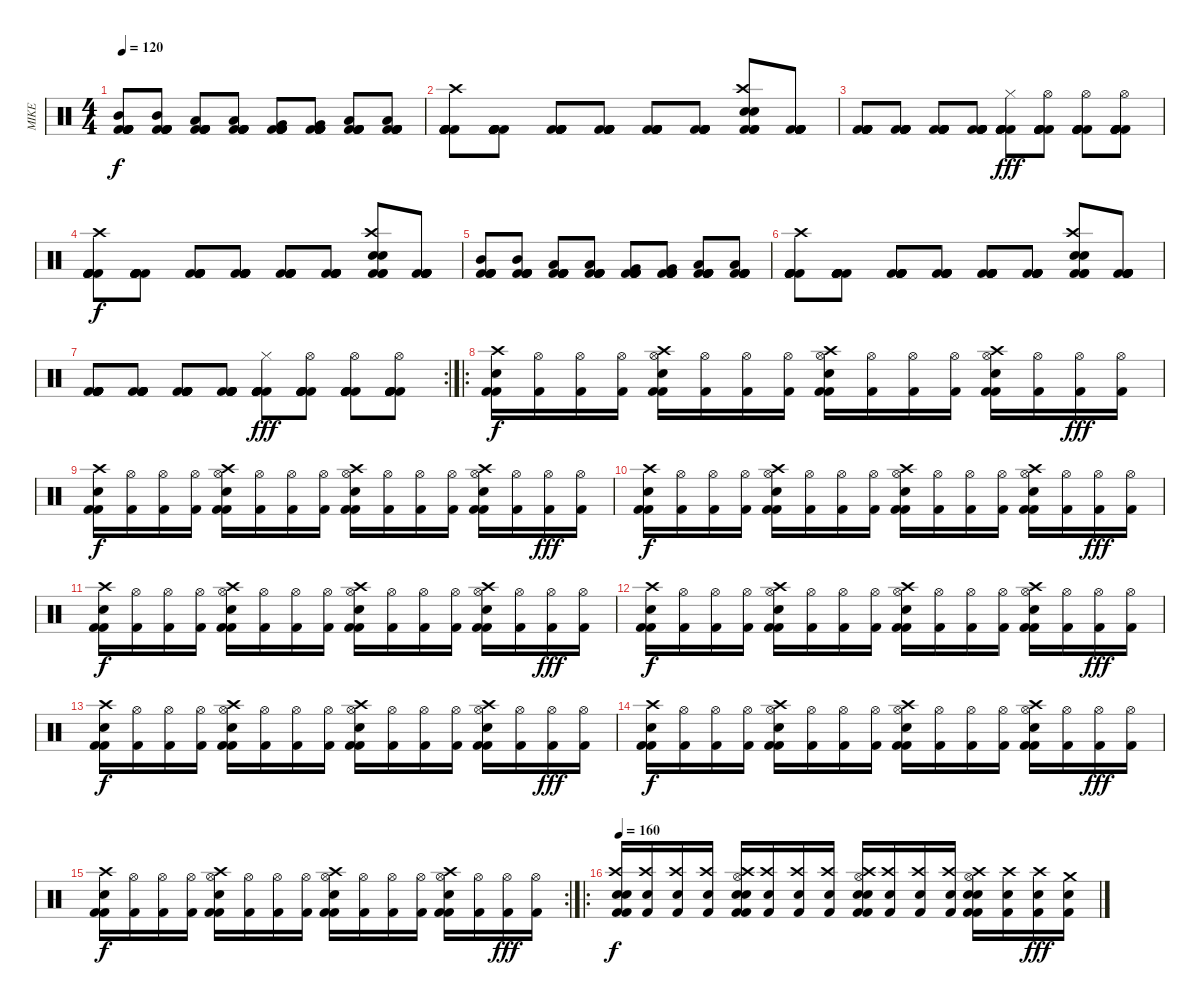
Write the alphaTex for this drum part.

\track ("MIKE" "MIKE") {instrument percussion}
\staff {score}
\articulation defaults
\ts (4 4)
\tempo 120
\clef neutral
\ks c
("Kick (hit) 2" "Mid Tom (hit)" "Kick (hit) 2" "Kick (hit) 2" "Kick (hit) 2" "Kick (hit) 2").8{dy f} ("Kick (hit) 2" "Mid Tom (hit)" "Kick (hit) 2" "Kick (hit) 2" "Kick (hit) 2" "Kick (hit) 2").8 ("Kick (hit) 2" "Kick (hit) 2" "Low Tom (hit)" "Kick (hit) 2" "Kick (hit) 2" "Kick (hit) 2").8 ("Kick (hit) 2" "Kick (hit) 2" "Low Tom (hit)" "Kick (hit) 2" "Kick (hit) 2" "Kick (hit) 2").8 ("Kick (hit) 2" "Kick (hit) 2" "Kick (hit) 2" "Very Low Tom (hit)" "Kick (hit) 2" "Kick (hit) 2").8 ("Kick (hit) 2" "Kick (hit) 2" "Kick (hit) 2" "Very Low Tom (hit)" "Kick (hit) 2" "Kick (hit) 2").8 ("Kick (hit) 2" "Kick (hit) 2" "Kick (hit) 2" "Kick (hit) 2" "Low Floor Tom (hit)" "Kick (hit) 2").8 ("Kick (hit) 2" "Kick (hit) 2" "Kick (hit) 2" "Kick (hit) 2" "Low Floor Tom (hit)" "Kick (hit) 2").8 |
("Crash high (hit)" "Kick (hit) 2" "Kick (hit) 2" "Kick (hit) 2" "Kick (hit) 2" "Kick (hit) 2").8 ("Kick (hit) 2" "Kick (hit) 2" "Kick (hit) 2" "Kick (hit) 2" "Kick (hit) 2" "Kick (hit) 2").8 ("Kick (hit) 2" "Kick (hit) 2" "Kick (hit) 2" "Kick (hit) 2" "Kick (hit) 2" "Kick (hit) 2").8 ("Kick (hit) 2" "Kick (hit) 2" "Kick (hit) 2" "Kick (hit) 2" "Kick (hit) 2" "Kick (hit) 2").8 ("Kick (hit) 2" "Kick (hit) 2" "Kick (hit) 2" "Kick (hit) 2" "Kick (hit) 2" "Kick (hit) 2").8 ("Kick (hit) 2" "Kick (hit) 2" "Kick (hit) 2" "Kick (hit) 2" "Kick (hit) 2" "Kick (hit) 2").8 ("Crash high (hit)" "Kick (hit) 2" "Electric Snare (hit)" "Kick (hit) 2" "Electric Snare (hit)" "Kick (hit) 2").8 ("Kick (hit) 2" "Kick (hit) 2" "Kick (hit) 2" "Kick (hit) 2" "Kick (hit) 2" "Kick (hit) 2").8 |
("Kick (hit) 2" "Kick (hit) 2" "Kick (hit) 2" "Kick (hit) 2" "Kick (hit) 2" "Kick (hit) 2").8 ("Kick (hit) 2" "Kick (hit) 2" "Kick (hit) 2" "Kick (hit) 2" "Kick (hit) 2" "Kick (hit) 2").8 ("Kick (hit) 2" "Kick (hit) 2" "Kick (hit) 2" "Kick (hit) 2" "Kick (hit) 2" "Kick (hit) 2").8 ("Kick (hit) 2" "Kick (hit) 2" "Kick (hit) 2" "Kick (hit) 2" "Kick (hit) 2" "Kick (hit) 2").8 ("Hi-Hat (closed)" "Kick (hit) 2" "Kick (hit) 2" "Kick (hit) 2" "Kick (hit) 2" "Kick (hit) 2").8{dy fff} ("Hi-Hat (open)" "Kick (hit) 2" "Kick (hit) 2" "Kick (hit) 2" "Kick (hit) 2" "Kick (hit) 2").8 ("Hi-Hat (open)" "Kick (hit) 2" "Kick (hit) 2" "Kick (hit) 2" "Kick (hit) 2" "Kick (hit) 2").8 ("Hi-Hat (open)" "Kick (hit) 2" "Kick (hit) 2" "Kick (hit) 2" "Kick (hit) 2" "Kick (hit) 2").8 |
("Crash high (hit)" "Kick (hit) 2" "Kick (hit) 2" "Kick (hit) 2" "Kick (hit) 2" "Kick (hit) 2").8{dy f} ("Kick (hit) 2" "Kick (hit) 2" "Kick (hit) 2" "Kick (hit) 2" "Kick (hit) 2" "Kick (hit) 2").8 ("Kick (hit) 2" "Kick (hit) 2" "Kick (hit) 2" "Kick (hit) 2" "Kick (hit) 2" "Kick (hit) 2").8 ("Kick (hit) 2" "Kick (hit) 2" "Kick (hit) 2" "Kick (hit) 2" "Kick (hit) 2" "Kick (hit) 2").8 ("Kick (hit) 2" "Kick (hit) 2" "Kick (hit) 2" "Kick (hit) 2" "Kick (hit) 2" "Kick (hit) 2").8 ("Kick (hit) 2" "Kick (hit) 2" "Kick (hit) 2" "Kick (hit) 2" "Kick (hit) 2" "Kick (hit) 2").8 ("Crash high (hit)" "Kick (hit) 2" "Electric Snare (hit)" "Kick (hit) 2" "Electric Snare (hit)" "Kick (hit) 2").8 ("Kick (hit) 2" "Kick (hit) 2" "Kick (hit) 2" "Kick (hit) 2" "Kick (hit) 2" "Kick (hit) 2").8 |
("Kick (hit) 2" "Mid Tom (hit)" "Kick (hit) 2" "Kick (hit) 2" "Kick (hit) 2" "Kick (hit) 2").8 ("Kick (hit) 2" "Mid Tom (hit)" "Kick (hit) 2" "Kick (hit) 2" "Kick (hit) 2" "Kick (hit) 2").8 ("Kick (hit) 2" "Kick (hit) 2" "Low Tom (hit)" "Kick (hit) 2" "Kick (hit) 2" "Kick (hit) 2").8 ("Kick (hit) 2" "Kick (hit) 2" "Low Tom (hit)" "Kick (hit) 2" "Kick (hit) 2" "Kick (hit) 2").8 ("Kick (hit) 2" "Kick (hit) 2" "Kick (hit) 2" "Very Low Tom (hit)" "Kick (hit) 2" "Kick (hit) 2").8 ("Kick (hit) 2" "Kick (hit) 2" "Kick (hit) 2" "Very Low Tom (hit)" "Kick (hit) 2" "Kick (hit) 2").8 ("Kick (hit) 2" "Kick (hit) 2" "Kick (hit) 2" "Kick (hit) 2" "Low Floor Tom (hit)" "Kick (hit) 2").8 ("Kick (hit) 2" "Kick (hit) 2" "Kick (hit) 2" "Kick (hit) 2" "Low Floor Tom (hit)" "Kick (hit) 2").8 |
("Crash high (hit)" "Kick (hit) 2" "Kick (hit) 2" "Kick (hit) 2" "Kick (hit) 2" "Kick (hit) 2").8 ("Kick (hit) 2" "Kick (hit) 2" "Kick (hit) 2" "Kick (hit) 2" "Kick (hit) 2" "Kick (hit) 2").8 ("Kick (hit) 2" "Kick (hit) 2" "Kick (hit) 2" "Kick (hit) 2" "Kick (hit) 2" "Kick (hit) 2").8 ("Kick (hit) 2" "Kick (hit) 2" "Kick (hit) 2" "Kick (hit) 2" "Kick (hit) 2" "Kick (hit) 2").8 ("Kick (hit) 2" "Kick (hit) 2" "Kick (hit) 2" "Kick (hit) 2" "Kick (hit) 2" "Kick (hit) 2").8 ("Kick (hit) 2" "Kick (hit) 2" "Kick (hit) 2" "Kick (hit) 2" "Kick (hit) 2" "Kick (hit) 2").8 ("Crash high (hit)" "Kick (hit) 2" "Electric Snare (hit)" "Kick (hit) 2" "Electric Snare (hit)" "Kick (hit) 2").8 ("Kick (hit) 2" "Kick (hit) 2" "Kick (hit) 2" "Kick (hit) 2" "Kick (hit) 2" "Kick (hit) 2").8 |
\rc 2
("Kick (hit) 2" "Kick (hit) 2" "Kick (hit) 2" "Kick (hit) 2" "Kick (hit) 2" "Kick (hit) 2").8 ("Kick (hit) 2" "Kick (hit) 2" "Kick (hit) 2" "Kick (hit) 2" "Kick (hit) 2" "Kick (hit) 2").8 ("Kick (hit) 2" "Kick (hit) 2" "Kick (hit) 2" "Kick (hit) 2" "Kick (hit) 2" "Kick (hit) 2").8 ("Kick (hit) 2" "Kick (hit) 2" "Kick (hit) 2" "Kick (hit) 2" "Kick (hit) 2" "Kick (hit) 2").8 ("Hi-Hat (closed)" "Kick (hit) 2" "Kick (hit) 2" "Kick (hit) 2" "Kick (hit) 2" "Kick (hit) 2").8{dy fff} ("Hi-Hat (open)" "Kick (hit) 2" "Kick (hit) 2" "Kick (hit) 2" "Kick (hit) 2" "Kick (hit) 2").8 ("Hi-Hat (open)" "Kick (hit) 2" "Kick (hit) 2" "Kick (hit) 2" "Kick (hit) 2" "Kick (hit) 2").8 ("Hi-Hat (open)" "Kick (hit) 2" "Kick (hit) 2" "Kick (hit) 2" "Kick (hit) 2" "Kick (hit) 2").8 |
\ro
("Crash high (hit)" "Kick (hit) 2" "Electric Snare (hit)" "Kick (hit) 2").16{dy f} ("Hi-Hat (open)" "Kick (hit) 2").16 ("Hi-Hat (open)" "Kick (hit) 2").16 ("Hi-Hat (open)" "Kick (hit) 2").16 ("Hi-Hat (open)" "Crash high (hit)" "Kick (hit) 2" "Electric Snare (hit)" "Kick (hit) 2").16 ("Hi-Hat (open)" "Kick (hit) 2").16 ("Hi-Hat (open)" "Kick (hit) 2").16 ("Hi-Hat (open)" "Kick (hit) 2").16 ("Hi-Hat (open)" "Crash high (hit)" "Kick (hit) 2" "Electric Snare (hit)" "Kick (hit) 2").16 ("Hi-Hat (open)" "Kick (hit) 2").16 ("Hi-Hat (open)" "Kick (hit) 2").16 ("Hi-Hat (open)" "Kick (hit) 2").16 ("Hi-Hat (open)" "Crash high (hit)" "Kick (hit) 2" "Electric Snare (hit)" "Kick (hit) 2").16 ("Hi-Hat (open)" "Kick (hit) 2").16 ("Hi-Hat (open)" "Kick (hit) 2").16{dy fff} ("Hi-Hat (open)" "Kick (hit) 2").16 |
("Crash high (hit)" "Kick (hit) 2" "Electric Snare (hit)" "Kick (hit) 2").16{dy f} ("Hi-Hat (open)" "Kick (hit) 2").16 ("Hi-Hat (open)" "Kick (hit) 2").16 ("Hi-Hat (open)" "Kick (hit) 2").16 ("Hi-Hat (open)" "Crash high (hit)" "Kick (hit) 2" "Electric Snare (hit)" "Kick (hit) 2").16 ("Hi-Hat (open)" "Kick (hit) 2").16 ("Hi-Hat (open)" "Kick (hit) 2").16 ("Hi-Hat (open)" "Kick (hit) 2").16 ("Hi-Hat (open)" "Crash high (hit)" "Kick (hit) 2" "Electric Snare (hit)" "Kick (hit) 2").16 ("Hi-Hat (open)" "Kick (hit) 2").16 ("Hi-Hat (open)" "Kick (hit) 2").16 ("Hi-Hat (open)" "Kick (hit) 2").16 ("Hi-Hat (open)" "Crash high (hit)" "Kick (hit) 2" "Electric Snare (hit)" "Kick (hit) 2").16 ("Hi-Hat (open)" "Kick (hit) 2").16 ("Hi-Hat (open)" "Kick (hit) 2").16{dy fff} ("Hi-Hat (open)" "Kick (hit) 2").16 |
("Crash high (hit)" "Kick (hit) 2" "Electric Snare (hit)" "Kick (hit) 2").16{dy f} ("Hi-Hat (open)" "Kick (hit) 2").16 ("Hi-Hat (open)" "Kick (hit) 2").16 ("Hi-Hat (open)" "Kick (hit) 2").16 ("Hi-Hat (open)" "Crash high (hit)" "Kick (hit) 2" "Electric Snare (hit)" "Kick (hit) 2").16 ("Hi-Hat (open)" "Kick (hit) 2").16 ("Hi-Hat (open)" "Kick (hit) 2").16 ("Hi-Hat (open)" "Kick (hit) 2").16 ("Hi-Hat (open)" "Crash high (hit)" "Kick (hit) 2" "Electric Snare (hit)" "Kick (hit) 2").16 ("Hi-Hat (open)" "Kick (hit) 2").16 ("Hi-Hat (open)" "Kick (hit) 2").16 ("Hi-Hat (open)" "Kick (hit) 2").16 ("Hi-Hat (open)" "Crash high (hit)" "Kick (hit) 2" "Electric Snare (hit)" "Kick (hit) 2").16 ("Hi-Hat (open)" "Kick (hit) 2").16 ("Hi-Hat (open)" "Kick (hit) 2").16{dy fff} ("Hi-Hat (open)" "Kick (hit) 2").16 |
("Crash high (hit)" "Kick (hit) 2" "Electric Snare (hit)" "Kick (hit) 2").16{dy f} ("Hi-Hat (open)" "Kick (hit) 2").16 ("Hi-Hat (open)" "Kick (hit) 2").16 ("Hi-Hat (open)" "Kick (hit) 2").16 ("Hi-Hat (open)" "Crash high (hit)" "Kick (hit) 2" "Electric Snare (hit)" "Kick (hit) 2").16 ("Hi-Hat (open)" "Kick (hit) 2").16 ("Hi-Hat (open)" "Kick (hit) 2").16 ("Hi-Hat (open)" "Kick (hit) 2").16 ("Hi-Hat (open)" "Crash high (hit)" "Kick (hit) 2" "Electric Snare (hit)" "Kick (hit) 2").16 ("Hi-Hat (open)" "Kick (hit) 2").16 ("Hi-Hat (open)" "Kick (hit) 2").16 ("Hi-Hat (open)" "Kick (hit) 2").16 ("Hi-Hat (open)" "Crash high (hit)" "Kick (hit) 2" "Electric Snare (hit)" "Kick (hit) 2").16 ("Hi-Hat (open)" "Kick (hit) 2").16 ("Hi-Hat (open)" "Kick (hit) 2").16{dy fff} ("Hi-Hat (open)" "Kick (hit) 2").16 |
("Crash high (hit)" "Kick (hit) 2" "Electric Snare (hit)" "Kick (hit) 2").16{dy f} ("Hi-Hat (open)" "Kick (hit) 2").16 ("Hi-Hat (open)" "Kick (hit) 2").16 ("Hi-Hat (open)" "Kick (hit) 2").16 ("Hi-Hat (open)" "Crash high (hit)" "Kick (hit) 2" "Electric Snare (hit)" "Kick (hit) 2").16 ("Hi-Hat (open)" "Kick (hit) 2").16 ("Hi-Hat (open)" "Kick (hit) 2").16 ("Hi-Hat (open)" "Kick (hit) 2").16 ("Hi-Hat (open)" "Crash high (hit)" "Kick (hit) 2" "Electric Snare (hit)" "Kick (hit) 2").16 ("Hi-Hat (open)" "Kick (hit) 2").16 ("Hi-Hat (open)" "Kick (hit) 2").16 ("Hi-Hat (open)" "Kick (hit) 2").16 ("Hi-Hat (open)" "Crash high (hit)" "Kick (hit) 2" "Electric Snare (hit)" "Kick (hit) 2").16 ("Hi-Hat (open)" "Kick (hit) 2").16 ("Hi-Hat (open)" "Kick (hit) 2").16{dy fff} ("Hi-Hat (open)" "Kick (hit) 2").16 |
("Crash high (hit)" "Kick (hit) 2" "Electric Snare (hit)" "Kick (hit) 2").16{dy f} ("Hi-Hat (open)" "Kick (hit) 2").16 ("Hi-Hat (open)" "Kick (hit) 2").16 ("Hi-Hat (open)" "Kick (hit) 2").16 ("Hi-Hat (open)" "Crash high (hit)" "Kick (hit) 2" "Electric Snare (hit)" "Kick (hit) 2").16 ("Hi-Hat (open)" "Kick (hit) 2").16 ("Hi-Hat (open)" "Kick (hit) 2").16 ("Hi-Hat (open)" "Kick (hit) 2").16 ("Hi-Hat (open)" "Crash high (hit)" "Kick (hit) 2" "Electric Snare (hit)" "Kick (hit) 2").16 ("Hi-Hat (open)" "Kick (hit) 2").16 ("Hi-Hat (open)" "Kick (hit) 2").16 ("Hi-Hat (open)" "Kick (hit) 2").16 ("Hi-Hat (open)" "Crash high (hit)" "Kick (hit) 2" "Electric Snare (hit)" "Kick (hit) 2").16 ("Hi-Hat (open)" "Kick (hit) 2").16 ("Hi-Hat (open)" "Kick (hit) 2").16{dy fff} ("Hi-Hat (open)" "Kick (hit) 2").16 |
("Crash high (hit)" "Kick (hit) 2" "Electric Snare (hit)" "Kick (hit) 2").16{dy f} ("Hi-Hat (open)" "Kick (hit) 2").16 ("Hi-Hat (open)" "Kick (hit) 2").16 ("Hi-Hat (open)" "Kick (hit) 2").16 ("Hi-Hat (open)" "Crash high (hit)" "Kick (hit) 2" "Electric Snare (hit)" "Kick (hit) 2").16 ("Hi-Hat (open)" "Kick (hit) 2").16 ("Hi-Hat (open)" "Kick (hit) 2").16 ("Hi-Hat (open)" "Kick (hit) 2").16 ("Hi-Hat (open)" "Crash high (hit)" "Kick (hit) 2" "Electric Snare (hit)" "Kick (hit) 2").16 ("Hi-Hat (open)" "Kick (hit) 2").16 ("Hi-Hat (open)" "Kick (hit) 2").16 ("Hi-Hat (open)" "Kick (hit) 2").16 ("Hi-Hat (open)" "Crash high (hit)" "Kick (hit) 2" "Electric Snare (hit)" "Kick (hit) 2").16 ("Hi-Hat (open)" "Kick (hit) 2").16 ("Hi-Hat (open)" "Kick (hit) 2").16{dy fff} ("Hi-Hat (open)" "Kick (hit) 2").16 |
\rc 2
("Crash high (hit)" "Kick (hit) 2" "Electric Snare (hit)" "Kick (hit) 2").16{dy f} ("Hi-Hat (open)" "Kick (hit) 2").16 ("Hi-Hat (open)" "Kick (hit) 2").16 ("Hi-Hat (open)" "Kick (hit) 2").16 ("Hi-Hat (open)" "Crash high (hit)" "Kick (hit) 2" "Electric Snare (hit)" "Kick (hit) 2").16 ("Hi-Hat (open)" "Kick (hit) 2").16 ("Hi-Hat (open)" "Kick (hit) 2").16 ("Hi-Hat (open)" "Kick (hit) 2").16 ("Hi-Hat (open)" "Crash high (hit)" "Kick (hit) 2" "Electric Snare (hit)" "Kick (hit) 2").16 ("Hi-Hat (open)" "Kick (hit) 2").16 ("Hi-Hat (open)" "Kick (hit) 2").16 ("Hi-Hat (open)" "Kick (hit) 2").16 ("Hi-Hat (open)" "Crash high (hit)" "Kick (hit) 2" "Electric Snare (hit)" "Kick (hit) 2").16 ("Hi-Hat (open)" "Kick (hit) 2").16 ("Hi-Hat (open)" "Kick (hit) 2").16{dy fff} ("Hi-Hat (open)" "Kick (hit) 2").16 |
\ro
\tempo 160
("Snare (hit) 2" "Crash high (hit)" "Kick (hit) 2" "Electric Snare (hit)" "Kick (hit) 2").16{dy f volume 12} ("Snare (hit) 2" "Crash high (hit)" "Kick (hit) 2").16 ("Snare (hit) 2" "Crash high (hit)" "Kick (hit) 2").16 ("Snare (hit) 2" "Crash high (hit)" "Kick (hit) 2").16 ("Snare (hit) 2" "Hi-Hat (open)" "Crash high (hit)" "Kick (hit) 2" "Electric Snare (hit)" "Kick (hit) 2").16 ("Snare (hit) 2" "Crash high (hit)" "Kick (hit) 2").16 ("Snare (hit) 2" "Crash high (hit)" "Kick (hit) 2").16 ("Snare (hit) 2" "Crash high (hit)" "Kick (hit) 2").16 ("Snare (hit) 2" "Hi-Hat (open)" "Crash high (hit)" "Kick (hit) 2" "Electric Snare (hit)" "Kick (hit) 2").16 ("Snare (hit) 2" "Crash high (hit)" "Kick (hit) 2").16 ("Snare (hit) 2" "Crash high (hit)" "Kick (hit) 2").16 ("Snare (hit) 2" "Crash high (hit)" "Kick (hit) 2").16 ("Snare (hit) 2" "Hi-Hat (open)" "Crash high (hit)" "Kick (hit) 2" "Electric Snare (hit)" "Kick (hit) 2").16 ("Snare (hit) 2" "Crash high (hit)" "Kick (hit) 2").16 ("Snare (hit) 2" "Crash high (hit)" "Kick (hit) 2").16{dy fff} ("Snare (hit) 2" "Crash medium (hit)" "Kick (hit) 2").16
